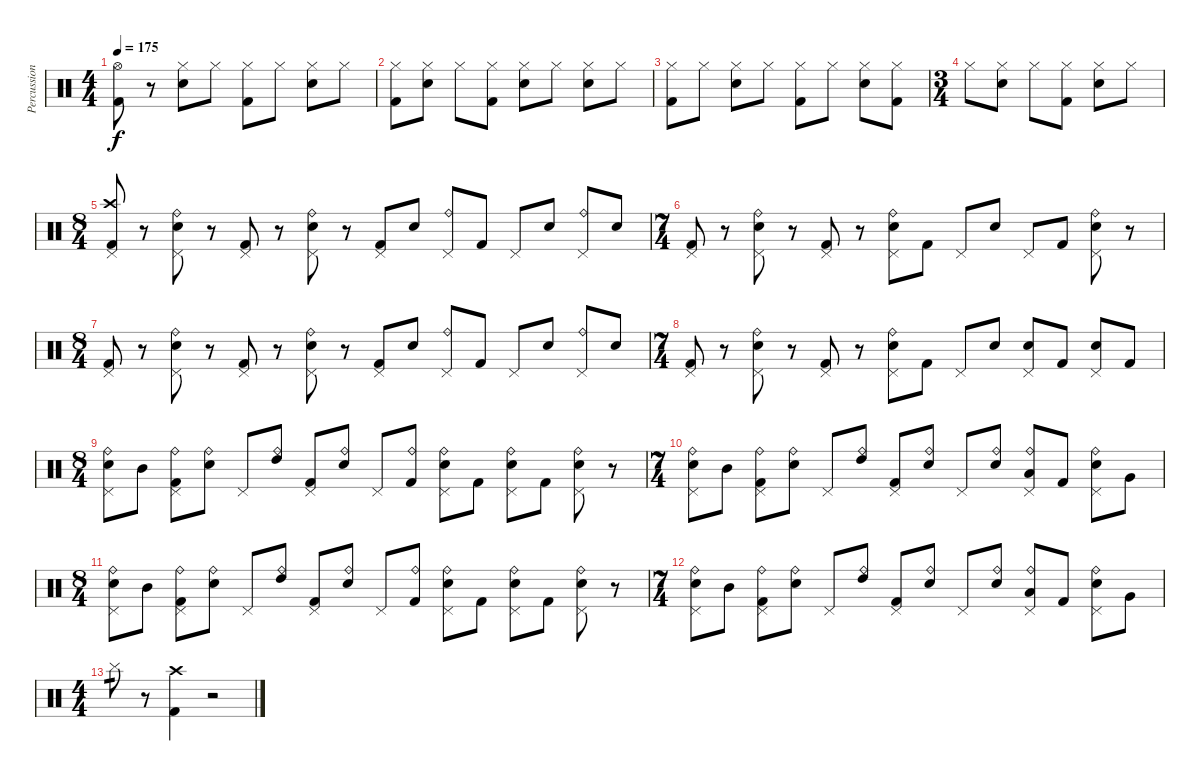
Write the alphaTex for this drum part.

\track ("Percussion" "Percussion") {instrument percussion}
\staff {score}
\articulation defaults
\ts (4 4)
\tempo 175
\clef neutral
\ks c
("Hi-Hat (open)" "Kick (hit) 2").8{dy f} r.8 ("Hi-Hat (closed)" "Electric Snare (hit)").8 "Hi-Hat (closed)".8 ("Hi-Hat (closed)" "Kick (hit) 2").8 "Hi-Hat (closed)".8 ("Hi-Hat (closed)" "Electric Snare (hit)").8 "Hi-Hat (closed)".8 |
("Hi-Hat (closed)" "Kick (hit) 2").8 ("Hi-Hat (closed)" "Electric Snare (hit)").8 "Hi-Hat (closed)".8 ("Hi-Hat (closed)" "Kick (hit) 2").8 ("Hi-Hat (closed)" "Electric Snare (hit)").8 "Hi-Hat (closed)".8 ("Hi-Hat (closed)" "Electric Snare (hit)").8 "Hi-Hat (closed)".8 |
("Hi-Hat (closed)" "Kick (hit) 2").8 "Hi-Hat (closed)".8 ("Hi-Hat (closed)" "Electric Snare (hit)").8 "Hi-Hat (closed)".8 ("Hi-Hat (closed)" "Kick (hit) 2").8 "Hi-Hat (closed)".8 ("Hi-Hat (closed)" "Electric Snare (hit)").8 ("Hi-Hat (closed)" "Kick (hit) 2").8 |
\ts (3 4)
"Hi-Hat (closed)".8 ("Hi-Hat (closed)" "Electric Snare (hit)").8 "Hi-Hat (closed)".8 ("Hi-Hat (closed)" "Kick (hit) 2").8 ("Hi-Hat (closed)" "Electric Snare (hit)").8 "Hi-Hat (closed)".8 |
\ts (8 4)
("Crash high (hit)" "Pedal Hi-Hat (hit)" "Kick (hit) 2").8 r.8 ("Ride (bell)" "Electric Snare (hit)" "Pedal Hi-Hat (hit)").8 r.8 ("Pedal Hi-Hat (hit)" "Kick (hit) 2").8 r.8 ("Ride (bell)" "Electric Snare (hit)" "Pedal Hi-Hat (hit)").8 r.8 ("Pedal Hi-Hat (hit)" "Kick (hit) 2").8 "Electric Snare (hit)".8 ("Ride (bell)" "Pedal Hi-Hat (hit)").8 "Kick (hit) 2".8 "Pedal Hi-Hat (hit)".8 "Electric Snare (hit)".8 ("Ride (bell)" "Pedal Hi-Hat (hit)").8 "Electric Snare (hit)".8 |
\ts (7 4)
("Pedal Hi-Hat (hit)" "Kick (hit) 2").8 r.8 ("Ride (bell)" "Electric Snare (hit)" "Pedal Hi-Hat (hit)").8 r.8 ("Pedal Hi-Hat (hit)" "Kick (hit) 2").8 r.8 ("Ride (bell)" "Electric Snare (hit)" "Pedal Hi-Hat (hit)").8 "Kick (hit) 2".8 "Pedal Hi-Hat (hit)".8 "Electric Snare (hit)".8 "Pedal Hi-Hat (hit)".8 "Kick (hit) 2".8 ("Ride (bell)" "Electric Snare (hit)" "Pedal Hi-Hat (hit)").8 r.8 |
\ts (8 4)
("Pedal Hi-Hat (hit)" "Kick (hit) 2").8 r.8 ("Ride (bell)" "Electric Snare (hit)" "Pedal Hi-Hat (hit)").8 r.8 ("Pedal Hi-Hat (hit)" "Kick (hit) 2").8 r.8 ("Ride (bell)" "Electric Snare (hit)" "Pedal Hi-Hat (hit)").8 r.8 ("Pedal Hi-Hat (hit)" "Kick (hit) 2").8 "Electric Snare (hit)".8 ("Ride (bell)" "Pedal Hi-Hat (hit)").8 "Kick (hit) 2".8 "Pedal Hi-Hat (hit)".8 "Electric Snare (hit)".8 ("Ride (bell)" "Pedal Hi-Hat (hit)").8 "Electric Snare (hit)".8 |
\ts (7 4)
("Pedal Hi-Hat (hit)" "Kick (hit) 2").8 r.8 ("Ride (bell)" "Electric Snare (hit)" "Pedal Hi-Hat (hit)").8 r.8 ("Pedal Hi-Hat (hit)" "Kick (hit) 2").8 r.8 ("Ride (bell)" "Electric Snare (hit)" "Pedal Hi-Hat (hit)").8 "Kick (hit) 2".8 "Pedal Hi-Hat (hit)".8 "Electric Snare (hit)".8 ("Electric Snare (hit)" "Pedal Hi-Hat (hit)").8 "Kick (hit) 2".8 ("Electric Snare (hit)" "Pedal Hi-Hat (hit)").8 "Kick (hit) 2".8 |
\ts (8 4)
("Ride (bell)" "Electric Snare (hit)" "Pedal Hi-Hat (hit)").8 "Mid Tom (hit)".8 ("Ride (bell)" "Pedal Hi-Hat (hit)" "Kick (hit) 2").8 ("Ride (bell)" "Electric Snare (hit)").8 "Pedal Hi-Hat (hit)".8 ("Ride (bell)" "High Tom (hit)").8 ("Pedal Hi-Hat (hit)" "Kick (hit) 2").8 ("Ride (bell)" "Electric Snare (hit)").8 "Pedal Hi-Hat (hit)".8 ("Ride (bell)" "Kick (hit) 2").8 ("Ride (bell)" "Electric Snare (hit)" "Pedal Hi-Hat (hit)").8 "Kick (hit) 2".8 ("Ride (bell)" "Electric Snare (hit)" "Pedal Hi-Hat (hit)").8 "Kick (hit) 2".8 ("Ride (bell)" "Electric Snare (hit)" "Pedal Hi-Hat (hit)").8 r.8 |
\ts (7 4)
("Ride (bell)" "Electric Snare (hit)" "Pedal Hi-Hat (hit)").8 "Mid Tom (hit)".8 ("Ride (bell)" "Pedal Hi-Hat (hit)" "Kick (hit) 2").8 ("Ride (bell)" "Electric Snare (hit)").8 "Pedal Hi-Hat (hit)".8 ("Ride (bell)" "High Tom (hit)").8 ("Pedal Hi-Hat (hit)" "Kick (hit) 2").8 ("Ride (bell)" "Electric Snare (hit)").8 "Pedal Hi-Hat (hit)".8 ("Ride (bell)" "Electric Snare (hit)").8 ("Ride (bell)" "Low Tom (hit)" "Pedal Hi-Hat (hit)").8 "Kick (hit) 2".8 ("Ride (bell)" "Electric Snare (hit)" "Pedal Hi-Hat (hit)").8 "Very Low Tom (hit)".8 |
\ts (8 4)
("Ride (bell)" "Electric Snare (hit)" "Pedal Hi-Hat (hit)").8 "Mid Tom (hit)".8 ("Ride (bell)" "Pedal Hi-Hat (hit)" "Kick (hit) 2").8 ("Ride (bell)" "Electric Snare (hit)").8 "Pedal Hi-Hat (hit)".8 ("Ride (bell)" "High Tom (hit)").8 ("Pedal Hi-Hat (hit)" "Kick (hit) 2").8 ("Ride (bell)" "Electric Snare (hit)").8 "Pedal Hi-Hat (hit)".8 ("Ride (bell)" "Kick (hit) 2").8 ("Ride (bell)" "Electric Snare (hit)" "Pedal Hi-Hat (hit)").8 "Kick (hit) 2".8 ("Ride (bell)" "Electric Snare (hit)" "Pedal Hi-Hat (hit)").8 "Kick (hit) 2".8 ("Ride (bell)" "Electric Snare (hit)" "Pedal Hi-Hat (hit)").8 r.8 |
\ts (7 4)
("Ride (bell)" "Electric Snare (hit)" "Pedal Hi-Hat (hit)").8 "Mid Tom (hit)".8 ("Ride (bell)" "Pedal Hi-Hat (hit)" "Kick (hit) 2").8 ("Ride (bell)" "Electric Snare (hit)").8 "Pedal Hi-Hat (hit)".8 ("Ride (bell)" "High Tom (hit)").8 ("Pedal Hi-Hat (hit)" "Kick (hit) 2").8 ("Ride (bell)" "Electric Snare (hit)").8 "Pedal Hi-Hat (hit)".8 ("Ride (bell)" "Electric Snare (hit)").8 ("Ride (bell)" "Low Tom (hit)" "Pedal Hi-Hat (hit)").8 "Kick (hit) 2".8 ("Ride (bell)" "Electric Snare (hit)" "Pedal Hi-Hat (hit)").8 "Very Low Tom (hit)".8 |
\ts (4 4)
"Cymbal (hit)".8{tp 1} r.8 ("Crash high (hit)" "Kick (hit) 2").4 r.2
